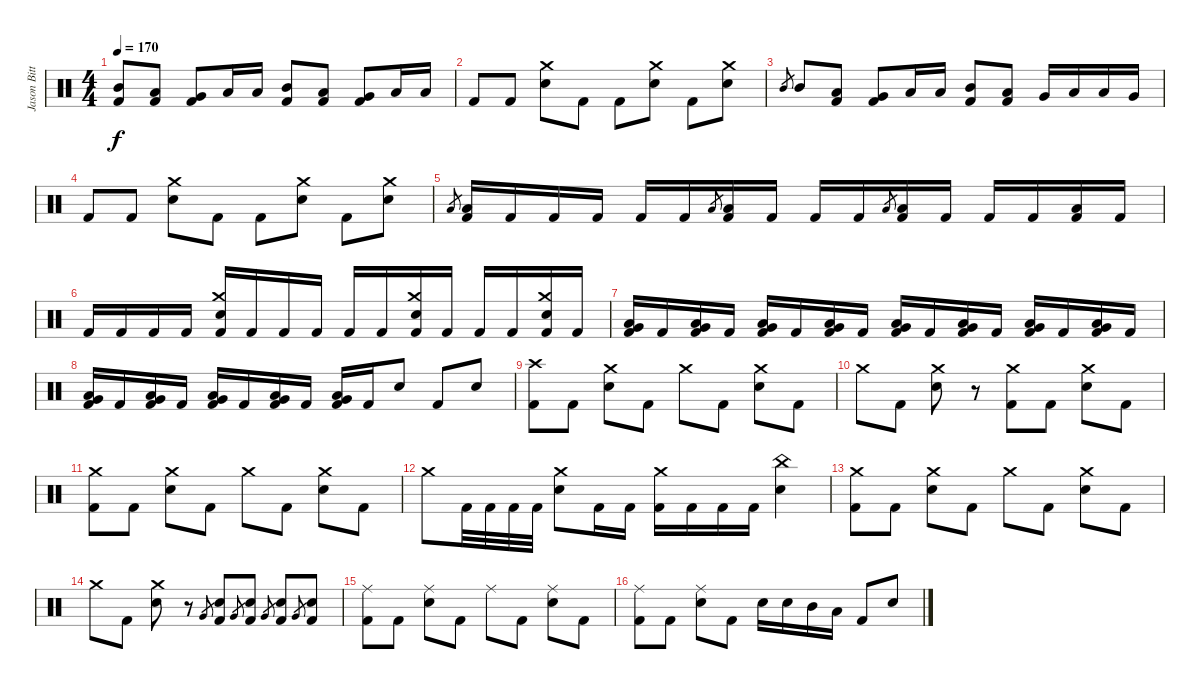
\track ("Jason Bittner" "Jason Bitt") {instrument percussion}
\staff {score}
\articulation defaults
\ts (4 4)
\tempo 170
\clef neutral
\ks c
("Kick (hit) 2" "Mid Tom (hit)").8{dy f} ("Kick (hit) 2" "Low Tom (hit)").8 ("Kick (hit) 2" "Very Low Tom (hit)").8 "Low Tom (hit)".16 "Low Tom (hit)".16 ("Kick (hit) 2" "Mid Tom (hit)").8 ("Kick (hit) 2" "Low Tom (hit)").8 ("Kick (hit) 2" "Very Low Tom (hit)").8 "Low Tom (hit)".16 "Low Tom (hit)".16 |
"Kick (hit) 2".8 "Kick (hit) 2".8 ("Crash medium (hit)" "Electric Snare (hit)").8 "Kick (hit) 2".8 "Kick (hit) 2".8 ("Crash medium (hit)" "Electric Snare (hit)").8 "Kick (hit) 2".8 ("Crash medium (hit)" "Electric Snare (hit)").8 |
"Mid Tom (hit)".8{gr} "Mid Tom (hit)".8 ("Kick (hit) 2" "Low Tom (hit)").8 ("Kick (hit) 2" "Very Low Tom (hit)").8 "Low Tom (hit)".16 "Low Tom (hit)".16 ("Kick (hit) 2" "Mid Tom (hit)").8 ("Kick (hit) 2" "Low Tom (hit)").8 "Very Low Tom (hit)".16 "Low Tom (hit)".16 "Low Tom (hit)".16 "Very Low Tom (hit)".16 |
"Kick (hit) 2".8 "Kick (hit) 2".8 ("Crash medium (hit)" "Electric Snare (hit)").8 "Kick (hit) 2".8 "Kick (hit) 2".8 ("Crash medium (hit)" "Electric Snare (hit)").8 "Kick (hit) 2".8 ("Crash medium (hit)" "Electric Snare (hit)").8 |
"Low Floor Tom (hit)".8{gr} ("Low Floor Tom (hit)" "Kick (hit) 2").16 "Kick (hit) 2".16 "Kick (hit) 2".16 "Kick (hit) 2".16 "Kick (hit) 2".16 "Kick (hit) 2".16 "Low Floor Tom (hit)".8{gr} ("Low Floor Tom (hit)" "Kick (hit) 2").16 "Kick (hit) 2".16 "Kick (hit) 2".16 "Kick (hit) 2".16 "Low Floor Tom (hit)".8{gr} ("Low Floor Tom (hit)" "Kick (hit) 2").16 "Kick (hit) 2".16 "Kick (hit) 2".16 "Kick (hit) 2".16 ("Low Floor Tom (hit)" "Kick (hit) 2").16 "Kick (hit) 2".16 |
"Kick (hit) 2".16 "Kick (hit) 2".16 "Kick (hit) 2".16 "Kick (hit) 2".16 ("Crash medium (hit)" "Electric Snare (hit)" "Kick (hit) 2").16 "Kick (hit) 2".16 "Kick (hit) 2".16 "Kick (hit) 2".16 "Kick (hit) 2".16 "Kick (hit) 2".16 ("Crash medium (hit)" "Electric Snare (hit)" "Kick (hit) 2").16 "Kick (hit) 2".16 "Kick (hit) 2".16 "Kick (hit) 2".16 ("Crash medium (hit)" "Electric Snare (hit)" "Kick (hit) 2").16 "Kick (hit) 2".16 |
("Very Low Tom (hit)" "Low Floor Tom (hit)" "Kick (hit) 2").16 "Kick (hit) 2".16 ("Very Low Tom (hit)" "Low Floor Tom (hit)" "Kick (hit) 2").16 "Kick (hit) 2".16 ("Very Low Tom (hit)" "Low Floor Tom (hit)" "Kick (hit) 2").16 "Kick (hit) 2".16 ("Very Low Tom (hit)" "Low Floor Tom (hit)" "Kick (hit) 2").16 "Kick (hit) 2".16 ("Very Low Tom (hit)" "Low Floor Tom (hit)" "Kick (hit) 2").16 "Kick (hit) 2".16 ("Very Low Tom (hit)" "Low Floor Tom (hit)" "Kick (hit) 2").16 "Kick (hit) 2".16 ("Very Low Tom (hit)" "Low Floor Tom (hit)" "Kick (hit) 2").16 "Kick (hit) 2".16 ("Very Low Tom (hit)" "Low Floor Tom (hit)" "Kick (hit) 2").16 "Kick (hit) 2".16 |
("Very Low Tom (hit)" "Low Floor Tom (hit)" "Kick (hit) 2").16 "Kick (hit) 2".16 ("Very Low Tom (hit)" "Low Floor Tom (hit)" "Kick (hit) 2").16 "Kick (hit) 2".16 ("Very Low Tom (hit)" "Low Floor Tom (hit)" "Kick (hit) 2").16 "Kick (hit) 2".16 ("Very Low Tom (hit)" "Low Floor Tom (hit)" "Kick (hit) 2").16 "Kick (hit) 2".16 ("Very Low Tom (hit)" "Low Floor Tom (hit)" "Kick (hit) 2").16 "Kick (hit) 2".16 "Electric Snare (hit)".8 "Kick (hit) 2".8 "Electric Snare (hit)".8 |
("Crash high (hit)" "Kick (hit) 2").8 "Kick (hit) 2".8 ("Crash medium (hit)" "Electric Snare (hit)").8 "Kick (hit) 2".8 "Crash medium (hit)".8 "Kick (hit) 2".8 ("Crash medium (hit)" "Electric Snare (hit)").8 "Kick (hit) 2".8 |
"Crash medium (hit)".8 "Kick (hit) 2".8 ("Crash medium (hit)" "Electric Snare (hit)").8 r.8 ("Crash medium (hit)" "Kick (hit) 2").8 "Kick (hit) 2".8 ("Crash medium (hit)" "Electric Snare (hit)").8 "Kick (hit) 2".8 |
("Crash medium (hit)" "Kick (hit) 2").8 "Kick (hit) 2".8 ("Crash medium (hit)" "Electric Snare (hit)").8 "Kick (hit) 2".8 "Crash medium (hit)".8 "Kick (hit) 2".8 ("Crash medium (hit)" "Electric Snare (hit)").8 "Kick (hit) 2".8 |
"Crash medium (hit)".8 "Kick (hit) 2".32 "Kick (hit) 2".32 "Kick (hit) 2".32 "Kick (hit) 2".32 ("Crash medium (hit)" "Electric Snare (hit)").8 "Kick (hit) 2".16 "Kick (hit) 2".16 ("Crash medium (hit)" "Kick (hit) 2").16 "Kick (hit) 2".16 "Kick (hit) 2".16 "Kick (hit) 2".16 ("China (hit)" "Electric Snare (hit)").4 |
("Crash medium (hit)" "Kick (hit) 2").8 "Kick (hit) 2".8 ("Crash medium (hit)" "Electric Snare (hit)").8 "Kick (hit) 2".8 "Crash medium (hit)".8 "Kick (hit) 2".8 ("Crash medium (hit)" "Electric Snare (hit)").8 "Kick (hit) 2".8 |
"Crash medium (hit)".8 "Kick (hit) 2".8 ("Crash medium (hit)" "Electric Snare (hit)").8 r.8 "Very Low Tom (hit)".8{gr} ("Kick (hit) 2" "Electric Snare (hit)").8 "Very Low Tom (hit)".8{gr} ("Kick (hit) 2" "Electric Snare (hit)").8 "Very Low Tom (hit)".8{gr} ("Kick (hit) 2" "Electric Snare (hit)").8 "Very Low Tom (hit)".8{gr} ("Kick (hit) 2" "Electric Snare (hit)").8 |
("Ride (middle)" "Kick (hit) 2").8 "Kick (hit) 2".8 ("Ride (middle)" "Electric Snare (hit)").8 "Kick (hit) 2".8 "Ride (middle)".8 "Kick (hit) 2".8 ("Ride (middle)" "Electric Snare (hit)").8 "Kick (hit) 2".8 |
("Ride (middle)" "Kick (hit) 2").8 "Kick (hit) 2".8 ("Ride (middle)" "Electric Snare (hit)").8 "Kick (hit) 2".8 "Electric Snare (hit)".16 "Electric Snare (hit)".16 "Mid Tom (hit)".16 "Low Tom (hit)".16 "Kick (hit) 2".8 "Electric Snare (hit)".8
